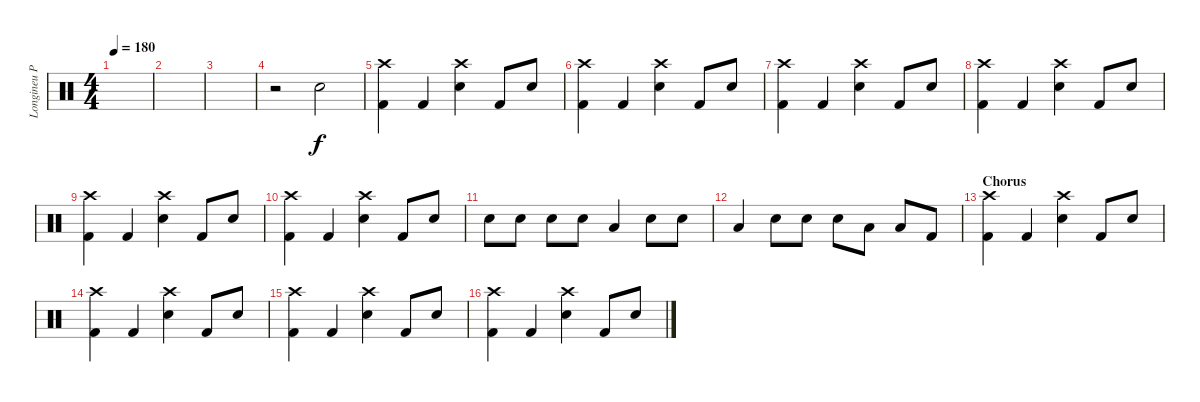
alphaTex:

\track ("Longineu Parsons III (Drums)" "Longineu P") {instrument percussion}
\staff {score}
\articulation defaults
\ts (4 4)
\tempo 180
\clef neutral
\ks c
|
|
|
r.2 "Snare (hit) 2".2 |
("Kick (hit) 2" "Crash high (hit)").4 "Kick (hit) 2".4 ("Snare (hit) 2" "Crash high (hit)").4 "Kick (hit) 2".8 "Snare (hit) 2".8 |
("Kick (hit) 2" "Crash high (hit)").4 "Kick (hit) 2".4 ("Snare (hit) 2" "Crash high (hit)").4 "Kick (hit) 2".8 "Snare (hit) 2".8 |
("Kick (hit) 2" "Crash high (hit)").4 "Kick (hit) 2".4 ("Snare (hit) 2" "Crash high (hit)").4 "Kick (hit) 2".8 "Snare (hit) 2".8 |
("Kick (hit) 2" "Crash high (hit)").4 "Kick (hit) 2".4 ("Snare (hit) 2" "Crash high (hit)").4 "Kick (hit) 2".8 "Snare (hit) 2".8 |
("Kick (hit) 2" "Crash high (hit)").4 "Kick (hit) 2".4 ("Snare (hit) 2" "Crash high (hit)").4 "Kick (hit) 2".8 "Snare (hit) 2".8 |
("Kick (hit) 2" "Crash high (hit)").4 "Kick (hit) 2".4 ("Snare (hit) 2" "Crash high (hit)").4 "Kick (hit) 2".8 "Snare (hit) 2".8 |
"Snare (hit) 2".8 "Snare (hit) 2".8 "Snare (hit) 2".8 "Snare (hit) 2".8 "Low Tom (hit)".4 "Snare (hit) 2".8 "Snare (hit) 2".8 |
"Low Tom (hit)".4 "Snare (hit) 2".8 "Snare (hit) 2".8 "Snare (hit) 2".8 "Low Tom (hit)".8 "Low Floor Tom (hit)".8 "Kick (hit) 2".8 |
\section ("" "Chorus")
("Kick (hit) 2" "Crash high (hit)").4 "Kick (hit) 2".4 ("Snare (hit) 2" "Crash high (hit)").4 "Kick (hit) 2".8 "Snare (hit) 2".8 |
("Kick (hit) 2" "Crash high (hit)").4 "Kick (hit) 2".4 ("Snare (hit) 2" "Crash high (hit)").4 "Kick (hit) 2".8 "Snare (hit) 2".8 |
("Kick (hit) 2" "Crash high (hit)").4 "Kick (hit) 2".4 ("Snare (hit) 2" "Crash high (hit)").4 "Kick (hit) 2".8 "Snare (hit) 2".8 |
("Kick (hit) 2" "Crash high (hit)").4 "Kick (hit) 2".4 ("Snare (hit) 2" "Crash high (hit)").4 "Kick (hit) 2".8 "Snare (hit) 2".8
